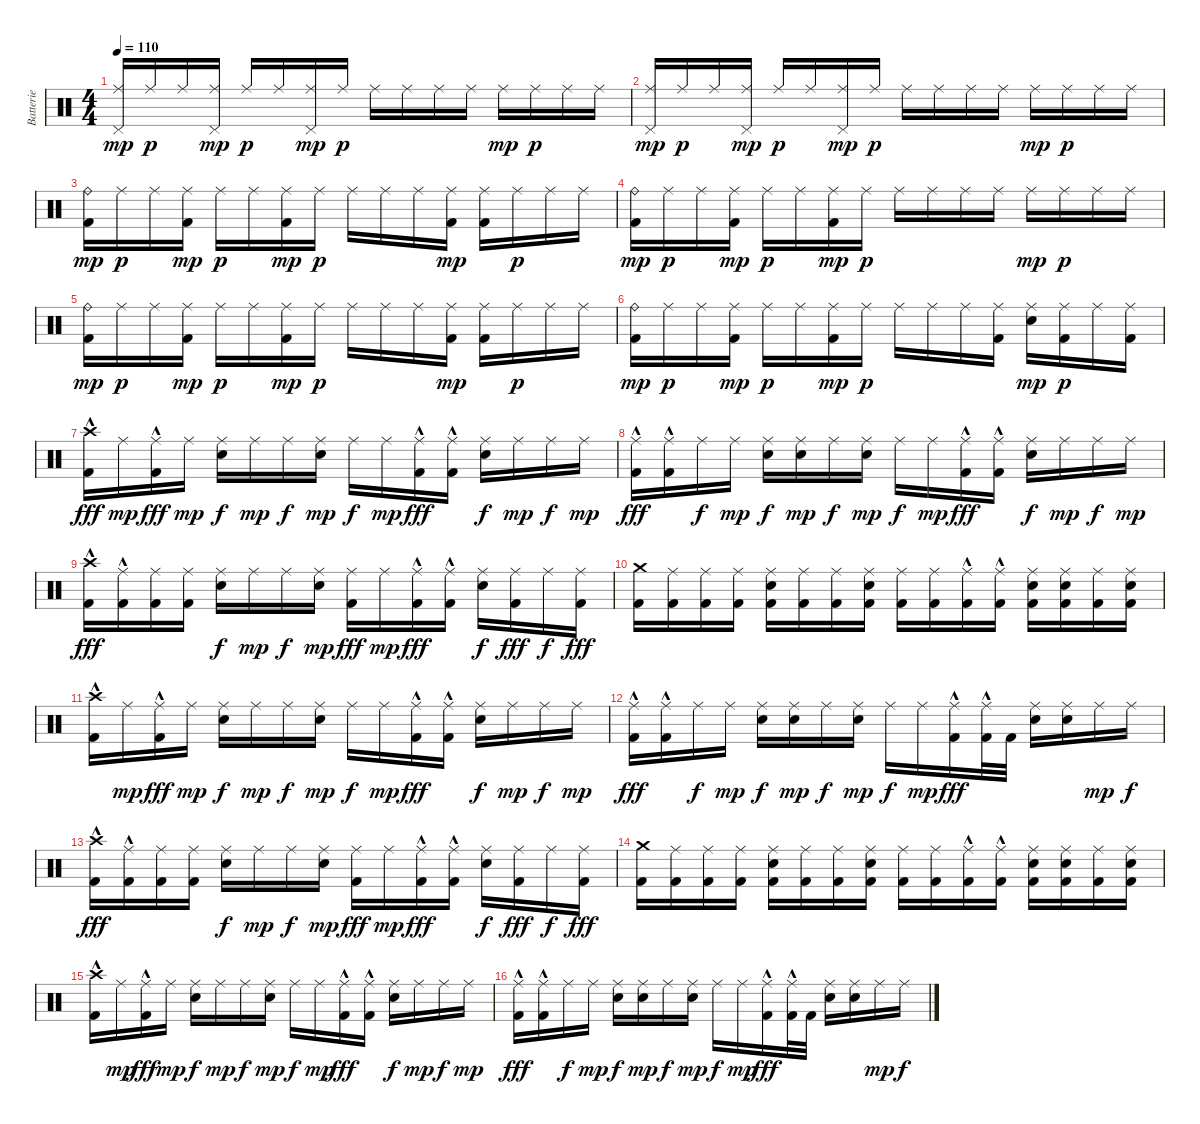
\track ("Batterie" "Batterie") {instrument percussion}
\staff {score}
\articulation defaults
\ts (4 4)
\tempo 110
\clef neutral
\ks c
("Ride (middle)" "Pedal Hi-Hat (hit)").16{dy mp} "Ride (middle)".16{dy p} "Ride (middle)".16 ("Ride (middle)" "Pedal Hi-Hat (hit)").16{dy mp} "Ride (middle)".16{dy p} "Ride (middle)".16 ("Ride (middle)" "Pedal Hi-Hat (hit)").16{dy mp} "Ride (middle)".16{dy p} "Ride (middle)".16 "Ride (middle)".16 "Ride (middle)".16 "Ride (middle)".16 "Ride (middle)".16{dy mp} "Ride (middle)".16{dy p} "Ride (middle)".16 "Ride (middle)".16 |
("Ride (middle)" "Pedal Hi-Hat (hit)").16{dy mp} "Ride (middle)".16{dy p} "Ride (middle)".16 ("Ride (middle)" "Pedal Hi-Hat (hit)").16{dy mp} "Ride (middle)".16{dy p} "Ride (middle)".16 ("Ride (middle)" "Pedal Hi-Hat (hit)").16{dy mp} "Ride (middle)".16{dy p} "Ride (middle)".16 "Ride (middle)".16 "Ride (middle)".16 "Ride (middle)".16 "Ride (middle)".16{dy mp} "Ride (middle)".16{dy p} "Ride (middle)".16 "Ride (middle)".16 |
("Ride (bell)" "Kick (hit) 2").16{dy mp} "Ride (middle)".16{dy p} "Ride (middle)".16 ("Ride (middle)" "Kick (hit) 2").16{dy mp} "Ride (middle)".16{dy p} "Ride (middle)".16 ("Ride (middle)" "Kick (hit) 2").16{dy mp} "Ride (middle)".16{dy p} "Ride (middle)".16 "Ride (middle)".16 "Ride (middle)".16 ("Ride (middle)" "Kick (hit) 2").16{dy mp} ("Ride (middle)" "Kick (hit) 2").16 "Ride (middle)".16{dy p} "Ride (middle)".16 "Ride (middle)".16 |
("Ride (bell)" "Kick (hit) 2").16{dy mp} "Ride (middle)".16{dy p} "Ride (middle)".16 ("Ride (middle)" "Kick (hit) 2").16{dy mp} "Ride (middle)".16{dy p} "Ride (middle)".16 ("Ride (middle)" "Kick (hit) 2").16{dy mp} "Ride (middle)".16{dy p} "Ride (middle)".16 "Ride (middle)".16 "Ride (middle)".16 "Ride (middle)".16 "Ride (middle)".16{dy mp} "Ride (middle)".16{dy p} "Ride (middle)".16 "Ride (middle)".16 |
("Ride (bell)" "Kick (hit) 2").16{dy mp} "Ride (middle)".16{dy p} "Ride (middle)".16 ("Ride (middle)" "Kick (hit) 2").16{dy mp} "Ride (middle)".16{dy p} "Ride (middle)".16 ("Ride (middle)" "Kick (hit) 2").16{dy mp} "Ride (middle)".16{dy p} "Ride (middle)".16 "Ride (middle)".16 "Ride (middle)".16 ("Ride (middle)" "Kick (hit) 2").16{dy mp} ("Ride (middle)" "Kick (hit) 2").16 "Ride (middle)".16{dy p} "Ride (middle)".16 "Ride (middle)".16 |
("Ride (bell)" "Kick (hit) 2").16{dy mp} "Ride (middle)".16{dy p} "Ride (middle)".16 ("Ride (middle)" "Kick (hit) 2").16{dy mp} "Ride (middle)".16{dy p} "Ride (middle)".16 ("Ride (middle)" "Kick (hit) 2").16{dy mp} "Ride (middle)".16{dy p} "Ride (middle)".16 "Ride (middle)".16 "Ride (middle)".16 ("Ride (middle)" "Kick (hit) 2").16 ("Ride (middle)" "Electric Snare (hit)").16{dy mp} ("Ride (middle)" "Kick (hit) 2").16{dy p} "Ride (middle)".16 ("Ride (middle)" "Kick (hit) 2").16 |
("Crash high (hit)" "Kick (hit) 2"{hac}).16{dy fff} "Ride (middle)".16{dy mp} ("Ride (middle)" "Kick (hit) 2"{hac}).16{dy fff} "Ride (middle)".16{dy mp} ("Ride (middle)" "Electric Snare (hit)").16{dy f} "Ride (middle)".16{dy mp} "Ride (middle)".16{dy f} ("Ride (middle)" "Electric Snare (hit)").16{dy mp} "Ride (middle)".16{dy f} "Ride (middle)".16{dy mp} ("Ride (middle)" "Kick (hit) 2"{hac}).16{dy fff} ("Ride (middle)" "Kick (hit) 2"{hac}).16 ("Ride (middle)" "Electric Snare (hit)").16{dy f} "Ride (middle)".16{dy mp} "Ride (middle)".16{dy f} "Ride (middle)".16{dy mp} |
("Ride (middle)" "Kick (hit) 2"{hac}).16{dy fff} ("Ride (middle)" "Kick (hit) 2"{hac}).16 "Ride (middle)".16{dy f} "Ride (middle)".16{dy mp} ("Ride (middle)" "Electric Snare (hit)").16{dy f} ("Ride (middle)" "Electric Snare (hit)").16{dy mp} "Ride (middle)".16{dy f} ("Ride (middle)" "Electric Snare (hit)").16{dy mp} "Ride (middle)".16{dy f} "Ride (middle)".16{dy mp} ("Ride (middle)" "Kick (hit) 2"{hac}).16{dy fff} ("Ride (middle)" "Kick (hit) 2"{hac}).16 ("Ride (middle)" "Electric Snare (hit)").16{dy f} "Ride (middle)".16{dy mp} "Ride (middle)".16{dy f} "Ride (middle)".16{dy mp} |
("Crash high (hit)" "Kick (hit) 2"{hac}).16{dy fff} ("Ride (middle)" "Kick (hit) 2"{hac}).16 ("Ride (middle)" "Kick (hit) 2").16 ("Ride (middle)" "Kick (hit) 2").16 ("Ride (middle)" "Electric Snare (hit)").16{dy f} "Ride (middle)".16{dy mp} "Ride (middle)".16{dy f} ("Ride (middle)" "Electric Snare (hit)").16{dy mp} ("Ride (middle)" "Kick (hit) 2").16{dy fff} "Ride (middle)".16{dy mp} ("Ride (middle)" "Kick (hit) 2"{hac}).16{dy fff} ("Ride (middle)" "Kick (hit) 2"{hac}).16 ("Ride (middle)" "Electric Snare (hit)").16{dy f} ("Ride (middle)" "Kick (hit) 2").16{dy fff} "Ride (middle)".16{dy f} ("Ride (middle)" "Kick (hit) 2").16{dy fff} |
("Crash medium (hit)" "Kick (hit) 2").16 ("Ride (middle)" "Kick (hit) 2").16 ("Ride (middle)" "Kick (hit) 2").16 ("Ride (middle)" "Kick (hit) 2").16 ("Ride (middle)" "Electric Snare (hit)" "Kick (hit) 2").16 ("Ride (middle)" "Kick (hit) 2").16 ("Ride (middle)" "Kick (hit) 2").16 ("Ride (middle)" "Electric Snare (hit)" "Kick (hit) 2").16 ("Ride (middle)" "Kick (hit) 2").16 ("Ride (middle)" "Kick (hit) 2").16 ("Ride (middle)" "Kick (hit) 2"{hac}).16 ("Ride (middle)" "Kick (hit) 2"{hac}).16 ("Ride (middle)" "Electric Snare (hit)" "Kick (hit) 2").16 ("Ride (middle)" "Electric Snare (hit)" "Kick (hit) 2").16 ("Ride (middle)" "Kick (hit) 2").16 ("Ride (middle)" "Electric Snare (hit)" "Kick (hit) 2").16 |
("Crash high (hit)" "Kick (hit) 2"{hac}).16 "Ride (middle)".16{dy mp} ("Ride (middle)" "Kick (hit) 2"{hac}).16{dy fff} "Ride (middle)".16{dy mp} ("Ride (middle)" "Electric Snare (hit)").16{dy f} "Ride (middle)".16{dy mp} "Ride (middle)".16{dy f} ("Ride (middle)" "Electric Snare (hit)").16{dy mp} "Ride (middle)".16{dy f} "Ride (middle)".16{dy mp} ("Ride (middle)" "Kick (hit) 2"{hac}).16{dy fff} ("Ride (middle)" "Kick (hit) 2"{hac}).16 ("Ride (middle)" "Electric Snare (hit)").16{dy f} "Ride (middle)".16{dy mp} "Ride (middle)".16{dy f} "Ride (middle)".16{dy mp} |
("Ride (middle)" "Kick (hit) 2"{hac}).16{dy fff} ("Ride (middle)" "Kick (hit) 2"{hac}).16 "Ride (middle)".16{dy f} "Ride (middle)".16{dy mp} ("Ride (middle)" "Electric Snare (hit)").16{dy f} ("Ride (middle)" "Electric Snare (hit)").16{dy mp} "Ride (middle)".16{dy f} ("Ride (middle)" "Electric Snare (hit)").16{dy mp} "Ride (middle)".16{dy f} "Ride (middle)".16{dy mp} ("Ride (middle)" "Kick (hit) 2"{hac}).16{dy fff} ("Ride (middle)" "Kick (hit) 2"{hac}).32 "Kick (hit) 2".32 ("Ride (middle)" "Electric Snare (hit)").16 ("Ride (middle)" "Electric Snare (hit)").16 "Ride (middle)".16{dy mp} "Ride (middle)".16{dy f} |
("Crash high (hit)" "Kick (hit) 2"{hac}).16{dy fff} ("Ride (middle)" "Kick (hit) 2"{hac}).16 ("Ride (middle)" "Kick (hit) 2").16 ("Ride (middle)" "Kick (hit) 2").16 ("Ride (middle)" "Electric Snare (hit)").16{dy f} "Ride (middle)".16{dy mp} "Ride (middle)".16{dy f} ("Ride (middle)" "Electric Snare (hit)").16{dy mp} ("Ride (middle)" "Kick (hit) 2").16{dy fff} "Ride (middle)".16{dy mp} ("Ride (middle)" "Kick (hit) 2"{hac}).16{dy fff} ("Ride (middle)" "Kick (hit) 2"{hac}).16 ("Ride (middle)" "Electric Snare (hit)").16{dy f} ("Ride (middle)" "Kick (hit) 2").16{dy fff} "Ride (middle)".16{dy f} ("Ride (middle)" "Kick (hit) 2").16{dy fff} |
("Crash medium (hit)" "Kick (hit) 2").16 ("Ride (middle)" "Kick (hit) 2").16 ("Ride (middle)" "Kick (hit) 2").16 ("Ride (middle)" "Kick (hit) 2").16 ("Ride (middle)" "Electric Snare (hit)" "Kick (hit) 2").16 ("Ride (middle)" "Kick (hit) 2").16 ("Ride (middle)" "Kick (hit) 2").16 ("Ride (middle)" "Electric Snare (hit)" "Kick (hit) 2").16 ("Ride (middle)" "Kick (hit) 2").16 ("Ride (middle)" "Kick (hit) 2").16 ("Ride (middle)" "Kick (hit) 2"{hac}).16 ("Ride (middle)" "Kick (hit) 2"{hac}).16 ("Ride (middle)" "Electric Snare (hit)" "Kick (hit) 2").16 ("Ride (middle)" "Electric Snare (hit)" "Kick (hit) 2").16 ("Ride (middle)" "Kick (hit) 2").16 ("Ride (middle)" "Electric Snare (hit)" "Kick (hit) 2").16 |
("Crash high (hit)" "Kick (hit) 2"{hac}).16 "Ride (middle)".16{dy mp} ("Ride (middle)" "Kick (hit) 2"{hac}).16{dy fff} "Ride (middle)".16{dy mp} ("Ride (middle)" "Electric Snare (hit)").16{dy f} "Ride (middle)".16{dy mp} "Ride (middle)".16{dy f} ("Ride (middle)" "Electric Snare (hit)").16{dy mp} "Ride (middle)".16{dy f} "Ride (middle)".16{dy mp} ("Ride (middle)" "Kick (hit) 2"{hac}).16{dy fff} ("Ride (middle)" "Kick (hit) 2"{hac}).16 ("Ride (middle)" "Electric Snare (hit)").16{dy f} "Ride (middle)".16{dy mp} "Ride (middle)".16{dy f} "Ride (middle)".16{dy mp} |
("Ride (middle)" "Kick (hit) 2"{hac}).16{dy fff} ("Ride (middle)" "Kick (hit) 2"{hac}).16 "Ride (middle)".16{dy f} "Ride (middle)".16{dy mp} ("Ride (middle)" "Electric Snare (hit)").16{dy f} ("Ride (middle)" "Electric Snare (hit)").16{dy mp} "Ride (middle)".16{dy f} ("Ride (middle)" "Electric Snare (hit)").16{dy mp} "Ride (middle)".16{dy f} "Ride (middle)".16{dy mp} ("Ride (middle)" "Kick (hit) 2"{hac}).16{dy fff} ("Ride (middle)" "Kick (hit) 2"{hac}).32 "Kick (hit) 2".32 ("Ride (middle)" "Electric Snare (hit)").16 ("Ride (middle)" "Electric Snare (hit)").16 "Ride (middle)".16{dy mp} "Ride (middle)".16{dy f}
